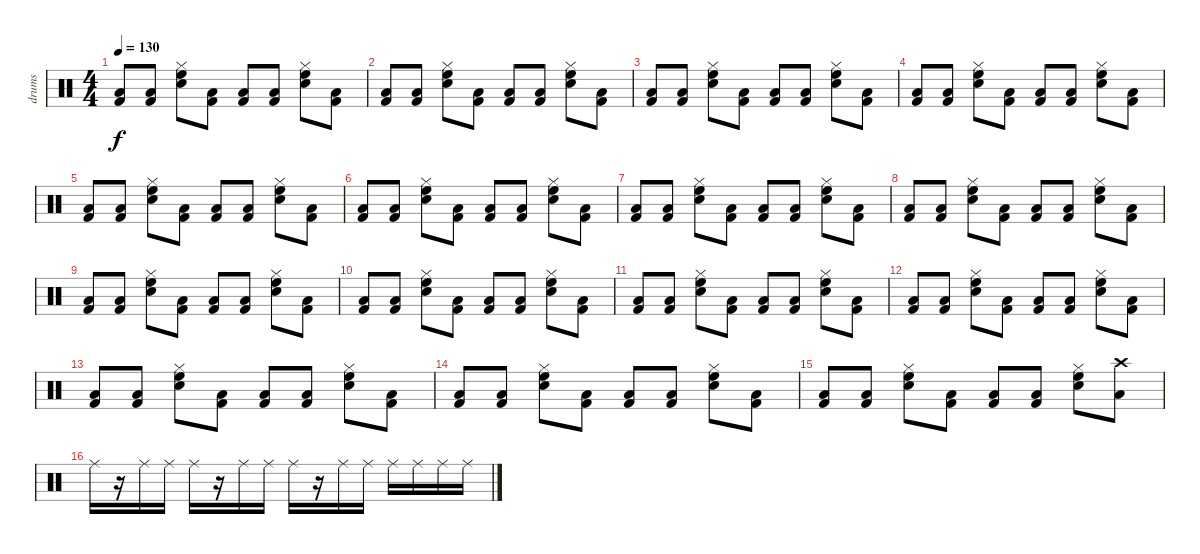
\track ("drums" "drums") {instrument percussion}
\staff {score}
\articulation defaults
\ts (4 4)
\tempo 130
\clef neutral
\ks c
("Kick (hit) 2" "Low Tom (hit)").8{dy f} ("Kick (hit) 2" "Low Tom (hit)").8 ("Hi-Hat (closed)" "High Floor Tom (hit)" "Snare (hit) 2").8 ("Kick (hit) 2" "Low Tom (hit)").8 ("Kick (hit) 2" "Low Tom (hit)").8 ("Kick (hit) 2" "Low Tom (hit)").8 ("Hi-Hat (closed)" "High Floor Tom (hit)" "Snare (hit) 2").8 ("Kick (hit) 2" "Low Tom (hit)").8 |
("Kick (hit) 2" "Low Tom (hit)").8 ("Kick (hit) 2" "Low Tom (hit)").8 ("Hi-Hat (closed)" "High Floor Tom (hit)" "Snare (hit) 2").8 ("Kick (hit) 2" "Low Tom (hit)").8 ("Kick (hit) 2" "Low Tom (hit)").8 ("Kick (hit) 2" "Low Tom (hit)").8 ("Hi-Hat (closed)" "High Floor Tom (hit)" "Snare (hit) 2").8 ("Kick (hit) 2" "Low Tom (hit)").8 |
("Kick (hit) 2" "Low Tom (hit)").8 ("Kick (hit) 2" "Low Tom (hit)").8 ("Hi-Hat (closed)" "High Floor Tom (hit)" "Snare (hit) 2").8 ("Kick (hit) 2" "Low Tom (hit)").8 ("Kick (hit) 2" "Low Tom (hit)").8 ("Kick (hit) 2" "Low Tom (hit)").8 ("Hi-Hat (closed)" "High Floor Tom (hit)" "Snare (hit) 2").8 ("Kick (hit) 2" "Low Tom (hit)").8 |
("Kick (hit) 2" "Low Tom (hit)").8 ("Kick (hit) 2" "Low Tom (hit)").8 ("Hi-Hat (closed)" "High Floor Tom (hit)" "Snare (hit) 2").8 ("Kick (hit) 2" "Low Tom (hit)").8 ("Kick (hit) 2" "Low Tom (hit)").8 ("Kick (hit) 2" "Low Tom (hit)").8 ("Hi-Hat (closed)" "High Floor Tom (hit)" "Snare (hit) 2").8 ("Kick (hit) 2" "Low Tom (hit)").8 |
("Kick (hit) 2" "Low Tom (hit)").8 ("Kick (hit) 2" "Low Tom (hit)").8 ("Hi-Hat (closed)" "High Floor Tom (hit)" "Snare (hit) 2").8 ("Kick (hit) 2" "Low Tom (hit)").8 ("Kick (hit) 2" "Low Tom (hit)").8 ("Kick (hit) 2" "Low Tom (hit)").8 ("Hi-Hat (closed)" "High Floor Tom (hit)" "Snare (hit) 2").8 ("Kick (hit) 2" "Low Tom (hit)").8 |
("Kick (hit) 2" "Low Tom (hit)").8 ("Kick (hit) 2" "Low Tom (hit)").8 ("Hi-Hat (closed)" "High Floor Tom (hit)" "Snare (hit) 2").8 ("Kick (hit) 2" "Low Tom (hit)").8 ("Kick (hit) 2" "Low Tom (hit)").8 ("Kick (hit) 2" "Low Tom (hit)").8 ("Hi-Hat (closed)" "High Floor Tom (hit)" "Snare (hit) 2").8 ("Kick (hit) 2" "Low Tom (hit)").8 |
("Kick (hit) 2" "Low Tom (hit)").8 ("Kick (hit) 2" "Low Tom (hit)").8 ("Hi-Hat (closed)" "High Floor Tom (hit)" "Snare (hit) 2").8 ("Kick (hit) 2" "Low Tom (hit)").8 ("Kick (hit) 2" "Low Tom (hit)").8 ("Kick (hit) 2" "Low Tom (hit)").8 ("Hi-Hat (closed)" "High Floor Tom (hit)" "Snare (hit) 2").8 ("Kick (hit) 2" "Low Tom (hit)").8 |
("Kick (hit) 2" "Low Tom (hit)").8 ("Kick (hit) 2" "Low Tom (hit)").8 ("Hi-Hat (closed)" "High Floor Tom (hit)" "Snare (hit) 2").8 ("Kick (hit) 2" "Low Tom (hit)").8 ("Kick (hit) 2" "Low Tom (hit)").8 ("Kick (hit) 2" "Low Tom (hit)").8 ("Hi-Hat (closed)" "High Floor Tom (hit)" "Snare (hit) 2").8 ("Kick (hit) 2" "Low Tom (hit)").8 |
("Kick (hit) 2" "Low Tom (hit)").8 ("Kick (hit) 2" "Low Tom (hit)").8 ("Hi-Hat (closed)" "High Floor Tom (hit)" "Snare (hit) 2").8 ("Kick (hit) 2" "Low Tom (hit)").8 ("Kick (hit) 2" "Low Tom (hit)").8 ("Kick (hit) 2" "Low Tom (hit)").8 ("Hi-Hat (closed)" "High Floor Tom (hit)" "Snare (hit) 2").8 ("Kick (hit) 2" "Low Tom (hit)").8 |
("Kick (hit) 2" "Low Tom (hit)").8 ("Kick (hit) 2" "Low Tom (hit)").8 ("Hi-Hat (closed)" "High Floor Tom (hit)" "Snare (hit) 2").8 ("Kick (hit) 2" "Low Tom (hit)").8 ("Kick (hit) 2" "Low Tom (hit)").8 ("Kick (hit) 2" "Low Tom (hit)").8 ("Hi-Hat (closed)" "High Floor Tom (hit)" "Snare (hit) 2").8 ("Kick (hit) 2" "Low Tom (hit)").8 |
("Kick (hit) 2" "Low Tom (hit)").8 ("Kick (hit) 2" "Low Tom (hit)").8 ("Hi-Hat (closed)" "High Floor Tom (hit)" "Snare (hit) 2").8 ("Kick (hit) 2" "Low Tom (hit)").8 ("Kick (hit) 2" "Low Tom (hit)").8 ("Kick (hit) 2" "Low Tom (hit)").8 ("Hi-Hat (closed)" "High Floor Tom (hit)" "Snare (hit) 2").8 ("Kick (hit) 2" "Low Tom (hit)").8 |
("Kick (hit) 2" "Low Tom (hit)").8 ("Kick (hit) 2" "Low Tom (hit)").8 ("Hi-Hat (closed)" "High Floor Tom (hit)" "Snare (hit) 2").8 ("Kick (hit) 2" "Low Tom (hit)").8 ("Kick (hit) 2" "Low Tom (hit)").8 ("Kick (hit) 2" "Low Tom (hit)").8 ("Hi-Hat (closed)" "High Floor Tom (hit)" "Snare (hit) 2").8 ("Kick (hit) 2" "Low Tom (hit)").8 |
("Kick (hit) 2" "Low Tom (hit)").8 ("Kick (hit) 2" "Low Tom (hit)").8 ("Hi-Hat (closed)" "High Floor Tom (hit)" "Snare (hit) 2").8 ("Kick (hit) 2" "Low Tom (hit)").8 ("Kick (hit) 2" "Low Tom (hit)").8 ("Kick (hit) 2" "Low Tom (hit)").8 ("Hi-Hat (closed)" "High Floor Tom (hit)" "Snare (hit) 2").8 ("Kick (hit) 2" "Low Tom (hit)").8 |
("Kick (hit) 2" "Low Tom (hit)").8 ("Kick (hit) 2" "Low Tom (hit)").8 ("Hi-Hat (closed)" "High Floor Tom (hit)" "Snare (hit) 2").8 ("Kick (hit) 2" "Low Tom (hit)").8 ("Kick (hit) 2" "Low Tom (hit)").8 ("Kick (hit) 2" "Low Tom (hit)").8 ("Hi-Hat (closed)" "High Floor Tom (hit)" "Snare (hit) 2").8 ("Kick (hit) 2" "Low Tom (hit)").8 |
("Kick (hit) 2" "Low Tom (hit)").8 ("Kick (hit) 2" "Low Tom (hit)").8 ("Hi-Hat (closed)" "High Floor Tom (hit)" "Snare (hit) 2").8 ("Kick (hit) 2" "Low Tom (hit)").8 ("Kick (hit) 2" "Low Tom (hit)").8 ("Kick (hit) 2" "Low Tom (hit)").8 ("Hi-Hat (closed)" "High Floor Tom (hit)" "Snare (hit) 2").8 ("Crash high (hit)" "Low Tom (hit)").8 |
"Ride (middle)".16 r.16 "Ride (middle)".16 "Ride (middle)".16 "Ride (middle)".16 r.16 "Ride (middle)".16 "Ride (middle)".16 "Ride (middle)".16 r.16 "Ride (middle)".16 "Ride (middle)".16 "Ride (middle)".16 "Ride (middle)".16 "Ride (middle)".16 "Ride (middle)".16
